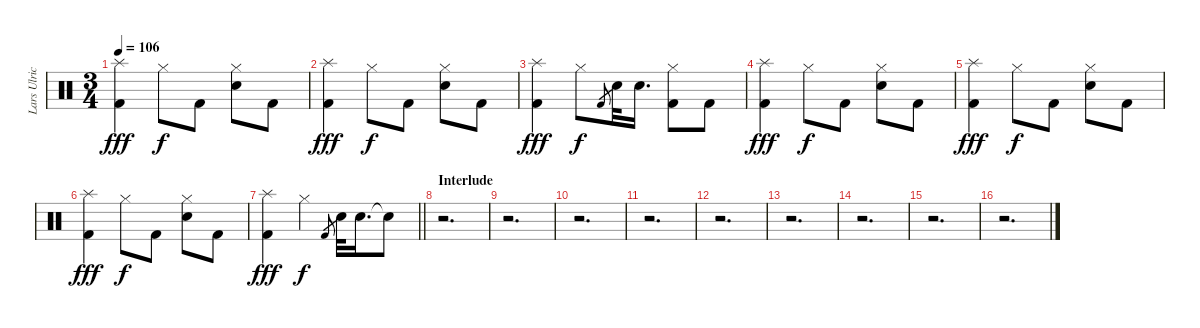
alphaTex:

\track ("Lars Ulrich [Drums]" "Lars Ulric") {instrument percussion}
\staff {score}
\articulation defaults
\ts (3 4)
\tempo 106
\clef neutral
\ks c
("Splash (hit)" "Kick (hit) 2").4{dy fff} "Hi-Hat (closed)".8{dy f} "Kick (hit) 2".8 ("Hi-Hat (closed)" "Electric Snare (hit)").8 "Kick (hit) 2".8 |
("Splash (hit)" "Kick (hit) 2").4{dy fff} "Hi-Hat (closed)".8{dy f} "Kick (hit) 2".8 ("Hi-Hat (closed)" "Electric Snare (hit)").8 "Kick (hit) 2".8 |
("Splash (hit)" "Kick (hit) 2").4{dy fff} "Hi-Hat (closed)".8{dy f} "Kick (hit) 2".8{gr} "Electric Snare (hit)".32 "Electric Snare (hit)".16{d} ("Hi-Hat (closed)" "Kick (hit) 2").8 "Kick (hit) 2".8 |
("Splash (hit)" "Kick (hit) 2").4{dy fff} "Hi-Hat (closed)".8{dy f} "Kick (hit) 2".8 ("Hi-Hat (closed)" "Electric Snare (hit)").8 "Kick (hit) 2".8 |
("Splash (hit)" "Kick (hit) 2").4{dy fff} "Hi-Hat (closed)".8{dy f} "Kick (hit) 2".8 ("Hi-Hat (closed)" "Electric Snare (hit)").8 "Kick (hit) 2".8 |
("Splash (hit)" "Kick (hit) 2").4{dy fff} "Hi-Hat (closed)".8{dy f} "Kick (hit) 2".8 ("Hi-Hat (closed)" "Electric Snare (hit)").8 "Kick (hit) 2".8 |
\barLineRight lightlight
("Splash (hit)" "Kick (hit) 2").4{dy fff} "Hi-Hat (closed)".4{dy f} "Kick (hit) 2".8{gr} "Electric Snare (hit)".32 "Electric Snare (hit)".16{d} "Snare (hit)"{t}.8 |
\section ("" "Interlude")
r.2{d} |
r.2{d} |
r.2{d} |
r.2{d} |
r.2{d} |
r.2{d} |
r.2{d} |
r.2{d} |
r.2{d}
